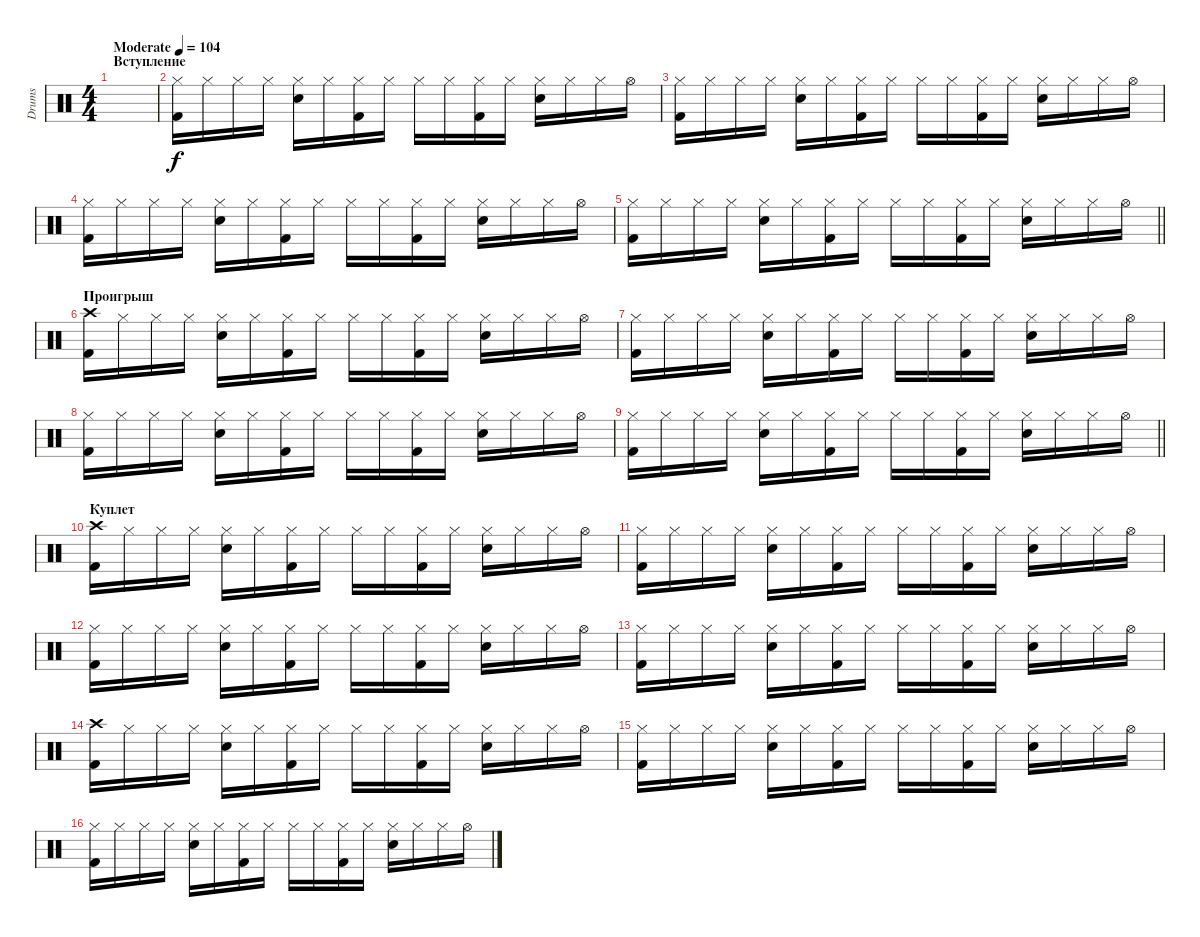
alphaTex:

\track ("Drums" "Drums") {instrument percussion}
\staff {score}
\articulation defaults
\ts (4 4)
\section ("" "Вступление ")
\tempo (104 "Moderate")
\clef neutral
\ks c
|
("Hi-Hat (closed)" "Kick (hit) 2").16{volume 3} "Hi-Hat (closed)".16 "Hi-Hat (closed)".16 "Hi-Hat (closed)".16 ("Hi-Hat (closed)" "Snare (hit) 2").16 "Hi-Hat (closed)".16 ("Hi-Hat (closed)" "Kick (hit) 2").16 "Hi-Hat (closed)".16 "Hi-Hat (closed)".16 "Hi-Hat (closed)".16 ("Hi-Hat (closed)" "Kick (hit) 2").16 "Hi-Hat (closed)".16 ("Hi-Hat (closed)" "Snare (hit) 2").16 "Hi-Hat (closed)".16 "Hi-Hat (closed)".16 "Hi-Hat (open)".16 |
("Hi-Hat (closed)" "Kick (hit) 2").16 "Hi-Hat (closed)".16 "Hi-Hat (closed)".16 "Hi-Hat (closed)".16 ("Hi-Hat (closed)" "Snare (hit) 2").16 "Hi-Hat (closed)".16 ("Hi-Hat (closed)" "Kick (hit) 2").16 "Hi-Hat (closed)".16 "Hi-Hat (closed)".16 "Hi-Hat (closed)".16 ("Hi-Hat (closed)" "Kick (hit) 2").16 "Hi-Hat (closed)".16 ("Hi-Hat (closed)" "Snare (hit) 2").16 "Hi-Hat (closed)".16 "Hi-Hat (closed)".16 "Hi-Hat (open)".16 |
("Hi-Hat (closed)" "Kick (hit) 2").16 "Hi-Hat (closed)".16 "Hi-Hat (closed)".16 "Hi-Hat (closed)".16 ("Hi-Hat (closed)" "Snare (hit) 2").16 "Hi-Hat (closed)".16 ("Hi-Hat (closed)" "Kick (hit) 2").16 "Hi-Hat (closed)".16 "Hi-Hat (closed)".16 "Hi-Hat (closed)".16 ("Hi-Hat (closed)" "Kick (hit) 2").16 "Hi-Hat (closed)".16 ("Hi-Hat (closed)" "Snare (hit) 2").16 "Hi-Hat (closed)".16 "Hi-Hat (closed)".16 "Hi-Hat (open)".16 |
\barLineRight lightlight
("Hi-Hat (closed)" "Kick (hit) 2").16 "Hi-Hat (closed)".16 "Hi-Hat (closed)".16 "Hi-Hat (closed)".16 ("Hi-Hat (closed)" "Snare (hit) 2").16 "Hi-Hat (closed)".16 ("Hi-Hat (closed)" "Kick (hit) 2").16 "Hi-Hat (closed)".16 "Hi-Hat (closed)".16 "Hi-Hat (closed)".16 ("Hi-Hat (closed)" "Kick (hit) 2").16 "Hi-Hat (closed)".16 ("Hi-Hat (closed)" "Snare (hit) 2").16 "Hi-Hat (closed)".16 "Hi-Hat (closed)".16 "Hi-Hat (open)".16 |
\section ("" "Проигрыш")
("Crash high (hit)" "Kick (hit) 2").16{volume 13} "Hi-Hat (closed)".16 "Hi-Hat (closed)".16 "Hi-Hat (closed)".16 ("Hi-Hat (closed)" "Snare (hit) 2").16 "Hi-Hat (closed)".16 ("Hi-Hat (closed)" "Kick (hit) 2").16 "Hi-Hat (closed)".16 "Hi-Hat (closed)".16 "Hi-Hat (closed)".16 ("Hi-Hat (closed)" "Kick (hit) 2").16 "Hi-Hat (closed)".16 ("Hi-Hat (closed)" "Snare (hit) 2").16 "Hi-Hat (closed)".16 "Hi-Hat (closed)".16 "Hi-Hat (open)".16 |
("Hi-Hat (closed)" "Kick (hit) 2").16 "Hi-Hat (closed)".16 "Hi-Hat (closed)".16 "Hi-Hat (closed)".16 ("Hi-Hat (closed)" "Snare (hit) 2").16 "Hi-Hat (closed)".16 ("Hi-Hat (closed)" "Kick (hit) 2").16 "Hi-Hat (closed)".16 "Hi-Hat (closed)".16 "Hi-Hat (closed)".16 ("Hi-Hat (closed)" "Kick (hit) 2").16 "Hi-Hat (closed)".16 ("Hi-Hat (closed)" "Snare (hit) 2").16 "Hi-Hat (closed)".16 "Hi-Hat (closed)".16 "Hi-Hat (open)".16 |
("Hi-Hat (closed)" "Kick (hit) 2").16 "Hi-Hat (closed)".16 "Hi-Hat (closed)".16 "Hi-Hat (closed)".16 ("Hi-Hat (closed)" "Snare (hit) 2").16 "Hi-Hat (closed)".16 ("Hi-Hat (closed)" "Kick (hit) 2").16 "Hi-Hat (closed)".16 "Hi-Hat (closed)".16 "Hi-Hat (closed)".16 ("Hi-Hat (closed)" "Kick (hit) 2").16 "Hi-Hat (closed)".16 ("Hi-Hat (closed)" "Snare (hit) 2").16 "Hi-Hat (closed)".16 "Hi-Hat (closed)".16 "Hi-Hat (open)".16 |
\barLineRight lightlight
("Hi-Hat (closed)" "Kick (hit) 2").16{volume 3} "Hi-Hat (closed)".16 "Hi-Hat (closed)".16 "Hi-Hat (closed)".16 ("Hi-Hat (closed)" "Snare (hit) 2").16 "Hi-Hat (closed)".16 ("Hi-Hat (closed)" "Kick (hit) 2").16 "Hi-Hat (closed)".16 "Hi-Hat (closed)".16 "Hi-Hat (closed)".16 ("Hi-Hat (closed)" "Kick (hit) 2").16 "Hi-Hat (closed)".16 ("Hi-Hat (closed)" "Snare (hit) 2").16 "Hi-Hat (closed)".16 "Hi-Hat (closed)".16 "Hi-Hat (open)".16 |
\section ("" "Куплет")
("Crash high (hit)" "Kick (hit) 2").16{volume 13} "Hi-Hat (closed)".16 "Hi-Hat (closed)".16 "Hi-Hat (closed)".16 ("Hi-Hat (closed)" "Snare (hit) 2").16 "Hi-Hat (closed)".16 ("Hi-Hat (closed)" "Kick (hit) 2").16 "Hi-Hat (closed)".16 "Hi-Hat (closed)".16 "Hi-Hat (closed)".16 ("Hi-Hat (closed)" "Kick (hit) 2").16 "Hi-Hat (closed)".16 ("Hi-Hat (closed)" "Snare (hit) 2").16 "Hi-Hat (closed)".16 "Hi-Hat (closed)".16 "Hi-Hat (open)".16 |
("Hi-Hat (closed)" "Kick (hit) 2").16 "Hi-Hat (closed)".16 "Hi-Hat (closed)".16 "Hi-Hat (closed)".16 ("Hi-Hat (closed)" "Snare (hit) 2").16 "Hi-Hat (closed)".16 ("Hi-Hat (closed)" "Kick (hit) 2").16 "Hi-Hat (closed)".16 "Hi-Hat (closed)".16 "Hi-Hat (closed)".16 ("Hi-Hat (closed)" "Kick (hit) 2").16 "Hi-Hat (closed)".16 ("Hi-Hat (closed)" "Snare (hit) 2").16 "Hi-Hat (closed)".16 "Hi-Hat (closed)".16 "Hi-Hat (open)".16 |
("Hi-Hat (closed)" "Kick (hit) 2").16 "Hi-Hat (closed)".16 "Hi-Hat (closed)".16 "Hi-Hat (closed)".16 ("Hi-Hat (closed)" "Snare (hit) 2").16 "Hi-Hat (closed)".16 ("Hi-Hat (closed)" "Kick (hit) 2").16 "Hi-Hat (closed)".16 "Hi-Hat (closed)".16 "Hi-Hat (closed)".16 ("Hi-Hat (closed)" "Kick (hit) 2").16 "Hi-Hat (closed)".16 ("Hi-Hat (closed)" "Snare (hit) 2").16 "Hi-Hat (closed)".16 "Hi-Hat (closed)".16 "Hi-Hat (open)".16 |
("Hi-Hat (closed)" "Kick (hit) 2").16 "Hi-Hat (closed)".16 "Hi-Hat (closed)".16 "Hi-Hat (closed)".16 ("Hi-Hat (closed)" "Snare (hit) 2").16 "Hi-Hat (closed)".16 ("Hi-Hat (closed)" "Kick (hit) 2").16 "Hi-Hat (closed)".16 "Hi-Hat (closed)".16 "Hi-Hat (closed)".16 ("Hi-Hat (closed)" "Kick (hit) 2").16 "Hi-Hat (closed)".16 ("Hi-Hat (closed)" "Snare (hit) 2").16 "Hi-Hat (closed)".16 "Hi-Hat (closed)".16 "Hi-Hat (open)".16 |
("Crash high (hit)" "Kick (hit) 2").16 "Hi-Hat (closed)".16 "Hi-Hat (closed)".16 "Hi-Hat (closed)".16 ("Hi-Hat (closed)" "Snare (hit) 2").16 "Hi-Hat (closed)".16 ("Hi-Hat (closed)" "Kick (hit) 2").16 "Hi-Hat (closed)".16 "Hi-Hat (closed)".16 "Hi-Hat (closed)".16 ("Hi-Hat (closed)" "Kick (hit) 2").16 "Hi-Hat (closed)".16 ("Hi-Hat (closed)" "Snare (hit) 2").16 "Hi-Hat (closed)".16 "Hi-Hat (closed)".16 "Hi-Hat (open)".16 |
("Hi-Hat (closed)" "Kick (hit) 2").16 "Hi-Hat (closed)".16 "Hi-Hat (closed)".16 "Hi-Hat (closed)".16 ("Hi-Hat (closed)" "Snare (hit) 2").16 "Hi-Hat (closed)".16 ("Hi-Hat (closed)" "Kick (hit) 2").16 "Hi-Hat (closed)".16 "Hi-Hat (closed)".16 "Hi-Hat (closed)".16 ("Hi-Hat (closed)" "Kick (hit) 2").16 "Hi-Hat (closed)".16 ("Hi-Hat (closed)" "Snare (hit) 2").16 "Hi-Hat (closed)".16 "Hi-Hat (closed)".16 "Hi-Hat (open)".16 |
("Hi-Hat (closed)" "Kick (hit) 2").16 "Hi-Hat (closed)".16 "Hi-Hat (closed)".16 "Hi-Hat (closed)".16 ("Hi-Hat (closed)" "Snare (hit) 2").16 "Hi-Hat (closed)".16 ("Hi-Hat (closed)" "Kick (hit) 2").16 "Hi-Hat (closed)".16 "Hi-Hat (closed)".16 "Hi-Hat (closed)".16 ("Hi-Hat (closed)" "Kick (hit) 2").16 "Hi-Hat (closed)".16 ("Hi-Hat (closed)" "Snare (hit) 2").16 "Hi-Hat (closed)".16 "Hi-Hat (closed)".16 "Hi-Hat (open)".16
